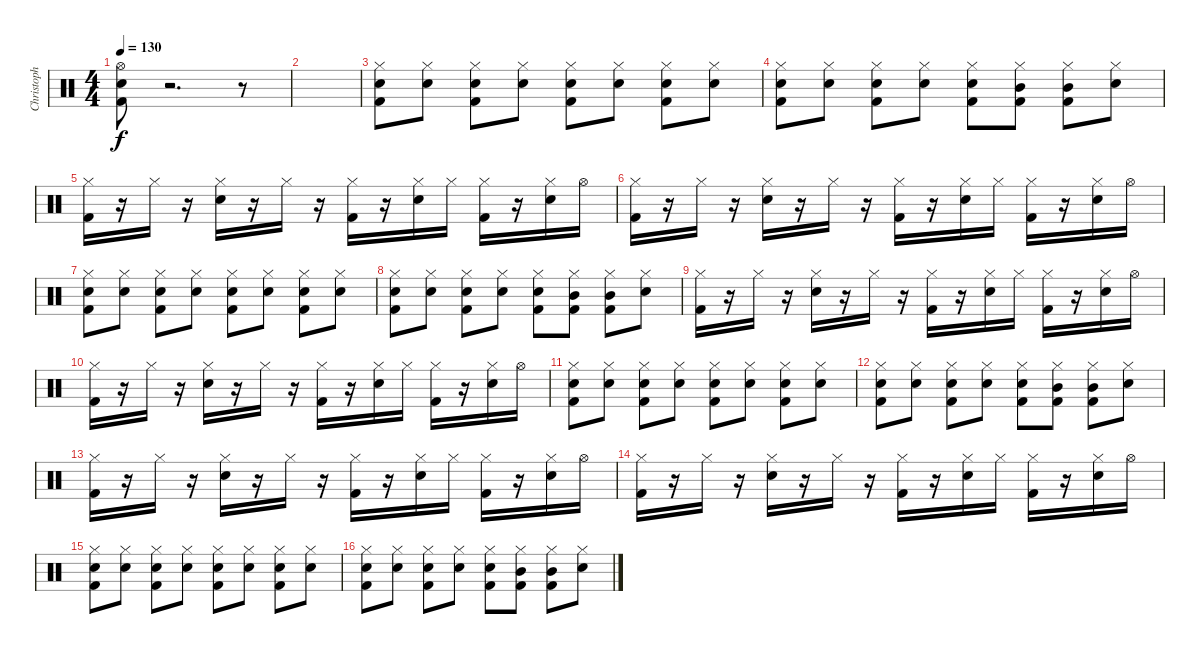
\track ("Christoph Schneider" "Christoph ") {instrument percussion}
\staff {score}
\articulation defaults
\ts (4 4)
\tempo 130
\clef neutral
\ks c
("Hi-Hat (open)" "Electric Snare (hit)" "Kick (hit) 2").8{dy f} r.2{d} r.8 |
|
("Hi-Hat (closed)" "Electric Snare (hit)" "Kick (hit) 2").8 ("Hi-Hat (closed)" "Electric Snare (hit)").8 ("Hi-Hat (closed)" "Electric Snare (hit)" "Kick (hit) 2").8 ("Hi-Hat (closed)" "Electric Snare (hit)").8 ("Hi-Hat (closed)" "Electric Snare (hit)" "Kick (hit) 2").8 ("Hi-Hat (closed)" "Electric Snare (hit)").8 ("Hi-Hat (closed)" "Electric Snare (hit)" "Kick (hit) 2").8 ("Hi-Hat (closed)" "Electric Snare (hit)").8 |
("Hi-Hat (closed)" "Electric Snare (hit)" "Kick (hit) 2").8 ("Hi-Hat (closed)" "Electric Snare (hit)").8 ("Hi-Hat (closed)" "Electric Snare (hit)" "Kick (hit) 2").8 ("Hi-Hat (closed)" "Electric Snare (hit)").8 ("Hi-Hat (closed)" "Electric Snare (hit)" "Kick (hit) 2").8 ("Hi-Hat (closed)" "Mid Tom (hit)" "Kick (hit) 2").8 ("Hi-Hat (closed)" "Mid Tom (hit)" "Kick (hit) 2").8 ("Hi-Hat (closed)" "Electric Snare (hit)").8 |
("Hi-Hat (closed)" "Kick (hit) 2").16 r.16 "Hi-Hat (closed)".16 r.16 ("Hi-Hat (closed)" "Electric Snare (hit)").16 r.16 "Hi-Hat (closed)".16 r.16 ("Hi-Hat (closed)" "Kick (hit) 2").16 r.16 ("Hi-Hat (closed)" "Electric Snare (hit)").16 "Hi-Hat (closed)".16 ("Hi-Hat (closed)" "Kick (hit) 2").16 r.16 ("Hi-Hat (closed)" "Electric Snare (hit)").16 "Hi-Hat (open)".16 |
("Hi-Hat (closed)" "Kick (hit) 2").16 r.16 "Hi-Hat (closed)".16 r.16 ("Hi-Hat (closed)" "Electric Snare (hit)").16 r.16 "Hi-Hat (closed)".16 r.16 ("Hi-Hat (closed)" "Kick (hit) 2").16 r.16 ("Hi-Hat (closed)" "Electric Snare (hit)").16 "Hi-Hat (closed)".16 ("Hi-Hat (closed)" "Kick (hit) 2").16 r.16 ("Hi-Hat (closed)" "Electric Snare (hit)").16 "Hi-Hat (open)".16 |
("Hi-Hat (closed)" "Electric Snare (hit)" "Kick (hit) 2").8 ("Hi-Hat (closed)" "Electric Snare (hit)").8 ("Hi-Hat (closed)" "Electric Snare (hit)" "Kick (hit) 2").8 ("Hi-Hat (closed)" "Electric Snare (hit)").8 ("Hi-Hat (closed)" "Electric Snare (hit)" "Kick (hit) 2").8 ("Hi-Hat (closed)" "Electric Snare (hit)").8 ("Hi-Hat (closed)" "Electric Snare (hit)" "Kick (hit) 2").8 ("Hi-Hat (closed)" "Electric Snare (hit)").8 |
("Hi-Hat (closed)" "Electric Snare (hit)" "Kick (hit) 2").8 ("Hi-Hat (closed)" "Electric Snare (hit)").8 ("Hi-Hat (closed)" "Electric Snare (hit)" "Kick (hit) 2").8 ("Hi-Hat (closed)" "Electric Snare (hit)").8 ("Hi-Hat (closed)" "Electric Snare (hit)" "Kick (hit) 2").8 ("Hi-Hat (closed)" "Mid Tom (hit)" "Kick (hit) 2").8 ("Hi-Hat (closed)" "Mid Tom (hit)" "Kick (hit) 2").8 ("Hi-Hat (closed)" "Electric Snare (hit)").8 |
("Hi-Hat (closed)" "Kick (hit) 2").16 r.16 "Hi-Hat (closed)".16 r.16 ("Hi-Hat (closed)" "Electric Snare (hit)").16 r.16 "Hi-Hat (closed)".16 r.16 ("Hi-Hat (closed)" "Kick (hit) 2").16 r.16 ("Hi-Hat (closed)" "Electric Snare (hit)").16 "Hi-Hat (closed)".16 ("Hi-Hat (closed)" "Kick (hit) 2").16 r.16 ("Hi-Hat (closed)" "Electric Snare (hit)").16 "Hi-Hat (open)".16 |
("Hi-Hat (closed)" "Kick (hit) 2").16 r.16 "Hi-Hat (closed)".16 r.16 ("Hi-Hat (closed)" "Electric Snare (hit)").16 r.16 "Hi-Hat (closed)".16 r.16 ("Hi-Hat (closed)" "Kick (hit) 2").16 r.16 ("Hi-Hat (closed)" "Electric Snare (hit)").16 "Hi-Hat (closed)".16 ("Hi-Hat (closed)" "Kick (hit) 2").16 r.16 ("Hi-Hat (closed)" "Electric Snare (hit)").16 "Hi-Hat (open)".16 |
("Hi-Hat (closed)" "Electric Snare (hit)" "Kick (hit) 2").8 ("Hi-Hat (closed)" "Electric Snare (hit)").8 ("Hi-Hat (closed)" "Electric Snare (hit)" "Kick (hit) 2").8 ("Hi-Hat (closed)" "Electric Snare (hit)").8 ("Hi-Hat (closed)" "Electric Snare (hit)" "Kick (hit) 2").8 ("Hi-Hat (closed)" "Electric Snare (hit)").8 ("Hi-Hat (closed)" "Electric Snare (hit)" "Kick (hit) 2").8 ("Hi-Hat (closed)" "Electric Snare (hit)").8 |
("Hi-Hat (closed)" "Electric Snare (hit)" "Kick (hit) 2").8 ("Hi-Hat (closed)" "Electric Snare (hit)").8 ("Hi-Hat (closed)" "Electric Snare (hit)" "Kick (hit) 2").8 ("Hi-Hat (closed)" "Electric Snare (hit)").8 ("Hi-Hat (closed)" "Electric Snare (hit)" "Kick (hit) 2").8 ("Hi-Hat (closed)" "Mid Tom (hit)" "Kick (hit) 2").8 ("Hi-Hat (closed)" "Mid Tom (hit)" "Kick (hit) 2").8 ("Hi-Hat (closed)" "Electric Snare (hit)").8 |
("Hi-Hat (closed)" "Kick (hit) 2").16 r.16 "Hi-Hat (closed)".16 r.16 ("Hi-Hat (closed)" "Electric Snare (hit)").16 r.16 "Hi-Hat (closed)".16 r.16 ("Hi-Hat (closed)" "Kick (hit) 2").16 r.16 ("Hi-Hat (closed)" "Electric Snare (hit)").16 "Hi-Hat (closed)".16 ("Hi-Hat (closed)" "Kick (hit) 2").16 r.16 ("Hi-Hat (closed)" "Electric Snare (hit)").16 "Hi-Hat (open)".16 |
("Hi-Hat (closed)" "Kick (hit) 2").16 r.16 "Hi-Hat (closed)".16 r.16 ("Hi-Hat (closed)" "Electric Snare (hit)").16 r.16 "Hi-Hat (closed)".16 r.16 ("Hi-Hat (closed)" "Kick (hit) 2").16 r.16 ("Hi-Hat (closed)" "Electric Snare (hit)").16 "Hi-Hat (closed)".16 ("Hi-Hat (closed)" "Kick (hit) 2").16 r.16 ("Hi-Hat (closed)" "Electric Snare (hit)").16 "Hi-Hat (open)".16 |
("Hi-Hat (closed)" "Electric Snare (hit)" "Kick (hit) 2").8 ("Hi-Hat (closed)" "Electric Snare (hit)").8 ("Hi-Hat (closed)" "Electric Snare (hit)" "Kick (hit) 2").8 ("Hi-Hat (closed)" "Electric Snare (hit)").8 ("Hi-Hat (closed)" "Electric Snare (hit)" "Kick (hit) 2").8 ("Hi-Hat (closed)" "Electric Snare (hit)").8 ("Hi-Hat (closed)" "Electric Snare (hit)" "Kick (hit) 2").8 ("Hi-Hat (closed)" "Electric Snare (hit)").8 |
("Hi-Hat (closed)" "Electric Snare (hit)" "Kick (hit) 2").8 ("Hi-Hat (closed)" "Electric Snare (hit)").8 ("Hi-Hat (closed)" "Electric Snare (hit)" "Kick (hit) 2").8 ("Hi-Hat (closed)" "Electric Snare (hit)").8 ("Hi-Hat (closed)" "Electric Snare (hit)" "Kick (hit) 2").8 ("Hi-Hat (closed)" "Mid Tom (hit)" "Kick (hit) 2").8 ("Hi-Hat (closed)" "Mid Tom (hit)" "Kick (hit) 2").8 ("Hi-Hat (closed)" "Electric Snare (hit)").8
